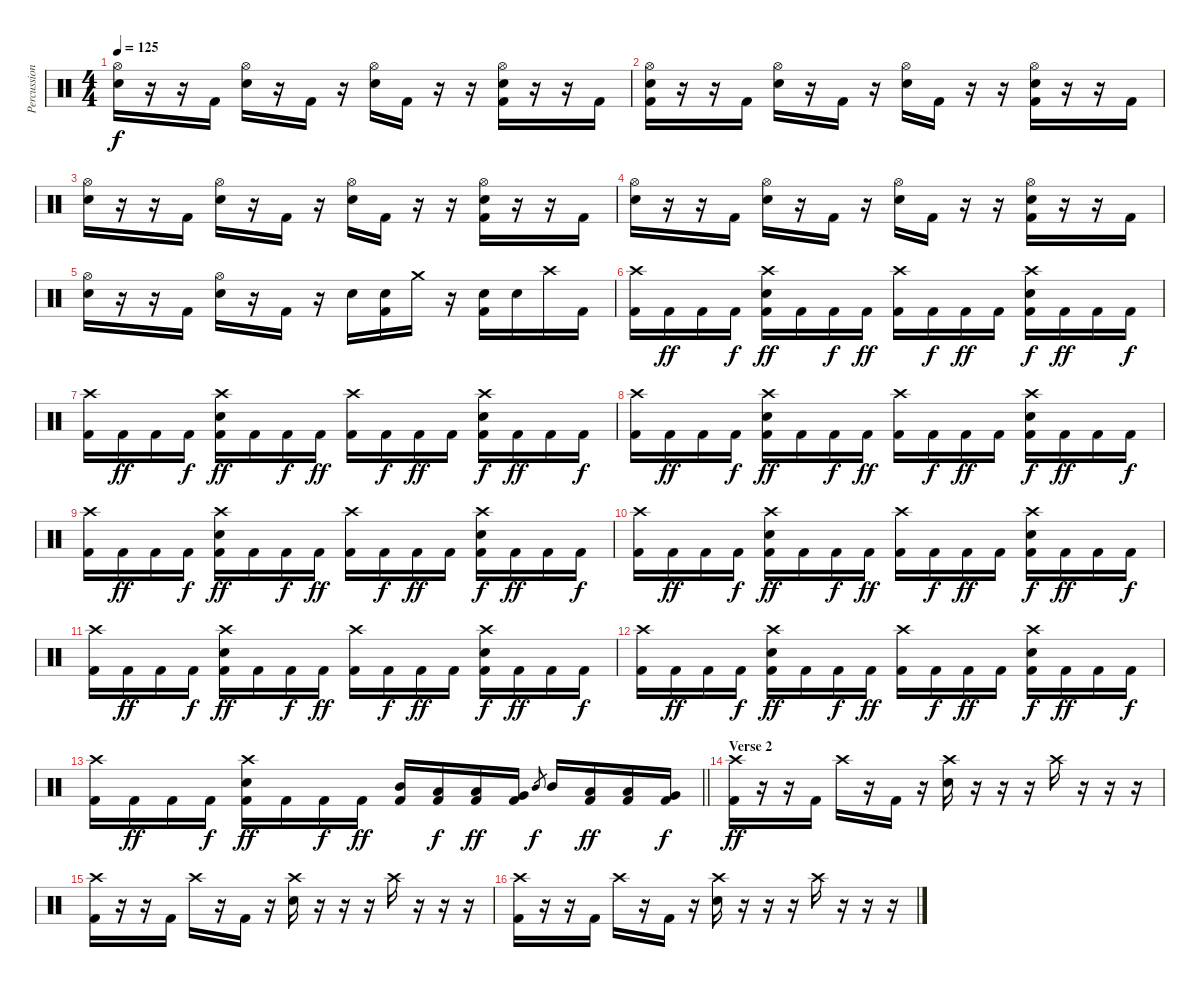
\track ("Percussion" "Percussion") {instrument percussion}
\staff {score}
\articulation defaults
\ts (4 4)
\tempo 125
\clef neutral
\ks c
("Hi-Hat (open)" "Electric Snare (hit)").16{dy f} r.16 r.16 "Kick (hit) 2".16 ("Hi-Hat (open)" "Electric Snare (hit)").16 r.16 "Kick (hit) 2".16 r.16 ("Hi-Hat (open)" "Electric Snare (hit)").16 "Kick (hit) 2".16 r.16 r.16 ("Hi-Hat (open)" "Electric Snare (hit)" "Kick (hit) 2").16 r.16 r.16 "Kick (hit) 2".16 |
("Hi-Hat (open)" "Electric Snare (hit)" "Kick (hit) 2").16 r.16 r.16 "Kick (hit) 2".16 ("Hi-Hat (open)" "Electric Snare (hit)").16 r.16 "Kick (hit) 2".16 r.16 ("Hi-Hat (open)" "Electric Snare (hit)").16 "Kick (hit) 2".16 r.16 r.16 ("Hi-Hat (open)" "Electric Snare (hit)" "Kick (hit) 2").16 r.16 r.16 "Kick (hit) 2".16 |
("Hi-Hat (open)" "Electric Snare (hit)").16 r.16 r.16 "Kick (hit) 2".16 ("Hi-Hat (open)" "Electric Snare (hit)").16 r.16 "Kick (hit) 2".16 r.16 ("Hi-Hat (open)" "Electric Snare (hit)").16 "Kick (hit) 2".16 r.16 r.16 ("Hi-Hat (open)" "Electric Snare (hit)" "Kick (hit) 2").16 r.16 r.16 "Kick (hit) 2".16 |
("Hi-Hat (open)" "Electric Snare (hit)").16 r.16 r.16 "Kick (hit) 2".16 ("Hi-Hat (open)" "Electric Snare (hit)").16 r.16 "Kick (hit) 2".16 r.16 ("Hi-Hat (open)" "Electric Snare (hit)").16 "Kick (hit) 2".16 r.16 r.16 ("Hi-Hat (open)" "Electric Snare (hit)" "Kick (hit) 2").16 r.16 r.16 "Kick (hit) 2".16 |
("Hi-Hat (open)" "Electric Snare (hit)").16 r.16 r.16 "Kick (hit) 2".16 ("Hi-Hat (open)" "Electric Snare (hit)").16 r.16 "Kick (hit) 2".16 r.16 "Electric Snare (hit)".16 ("Electric Snare (hit)" "Kick (hit) 2").16 "Crash medium (hit)".16 r.16 ("Electric Snare (hit)" "Kick (hit) 2").16 "Electric Snare (hit)".16 "Crash high (hit)".16 "Kick (hit) 2".16 |
("Crash high (hit)" "Kick (hit) 2").16 "Kick (hit) 2".16{dy ff} "Kick (hit) 2".16 "Kick (hit) 2".16{dy f} ("Crash high (hit)" "Electric Snare (hit)" "Kick (hit) 2").16{dy ff} "Kick (hit) 2".16 "Kick (hit) 2".16{dy f} "Kick (hit) 2".16{dy ff} ("Crash high (hit)" "Kick (hit) 2").16 "Kick (hit) 2".16{dy f} "Kick (hit) 2".16{dy ff} "Kick (hit) 2".16 ("Crash high (hit)" "Electric Snare (hit)" "Kick (hit) 2").16{dy f} "Kick (hit) 2".16{dy ff} "Kick (hit) 2".16 "Kick (hit) 2".16{dy f} |
("Crash high (hit)" "Kick (hit) 2").16 "Kick (hit) 2".16{dy ff} "Kick (hit) 2".16 "Kick (hit) 2".16{dy f} ("Crash high (hit)" "Electric Snare (hit)" "Kick (hit) 2").16{dy ff} "Kick (hit) 2".16 "Kick (hit) 2".16{dy f} "Kick (hit) 2".16{dy ff} ("Crash high (hit)" "Kick (hit) 2").16 "Kick (hit) 2".16{dy f} "Kick (hit) 2".16{dy ff} "Kick (hit) 2".16 ("Crash high (hit)" "Electric Snare (hit)" "Kick (hit) 2").16{dy f} "Kick (hit) 2".16{dy ff} "Kick (hit) 2".16 "Kick (hit) 2".16{dy f} |
("Crash high (hit)" "Kick (hit) 2").16 "Kick (hit) 2".16{dy ff} "Kick (hit) 2".16 "Kick (hit) 2".16{dy f} ("Crash high (hit)" "Electric Snare (hit)" "Kick (hit) 2").16{dy ff} "Kick (hit) 2".16 "Kick (hit) 2".16{dy f} "Kick (hit) 2".16{dy ff} ("Crash high (hit)" "Kick (hit) 2").16 "Kick (hit) 2".16{dy f} "Kick (hit) 2".16{dy ff} "Kick (hit) 2".16 ("Crash high (hit)" "Electric Snare (hit)" "Kick (hit) 2").16{dy f} "Kick (hit) 2".16{dy ff} "Kick (hit) 2".16 "Kick (hit) 2".16{dy f} |
("Crash high (hit)" "Kick (hit) 2").16 "Kick (hit) 2".16{dy ff} "Kick (hit) 2".16 "Kick (hit) 2".16{dy f} ("Crash high (hit)" "Electric Snare (hit)" "Kick (hit) 2").16{dy ff} "Kick (hit) 2".16 "Kick (hit) 2".16{dy f} "Kick (hit) 2".16{dy ff} ("Crash high (hit)" "Kick (hit) 2").16 "Kick (hit) 2".16{dy f} "Kick (hit) 2".16{dy ff} "Kick (hit) 2".16 ("Crash high (hit)" "Electric Snare (hit)" "Kick (hit) 2").16{dy f} "Kick (hit) 2".16{dy ff} "Kick (hit) 2".16 "Kick (hit) 2".16{dy f} |
("Crash high (hit)" "Kick (hit) 2").16 "Kick (hit) 2".16{dy ff} "Kick (hit) 2".16 "Kick (hit) 2".16{dy f} ("Crash high (hit)" "Electric Snare (hit)" "Kick (hit) 2").16{dy ff} "Kick (hit) 2".16 "Kick (hit) 2".16{dy f} "Kick (hit) 2".16{dy ff} ("Crash high (hit)" "Kick (hit) 2").16 "Kick (hit) 2".16{dy f} "Kick (hit) 2".16{dy ff} "Kick (hit) 2".16 ("Crash high (hit)" "Electric Snare (hit)" "Kick (hit) 2").16{dy f} "Kick (hit) 2".16{dy ff} "Kick (hit) 2".16 "Kick (hit) 2".16{dy f} |
("Crash high (hit)" "Kick (hit) 2").16 "Kick (hit) 2".16{dy ff} "Kick (hit) 2".16 "Kick (hit) 2".16{dy f} ("Crash high (hit)" "Electric Snare (hit)" "Kick (hit) 2").16{dy ff} "Kick (hit) 2".16 "Kick (hit) 2".16{dy f} "Kick (hit) 2".16{dy ff} ("Crash high (hit)" "Kick (hit) 2").16 "Kick (hit) 2".16{dy f} "Kick (hit) 2".16{dy ff} "Kick (hit) 2".16 ("Crash high (hit)" "Electric Snare (hit)" "Kick (hit) 2").16{dy f} "Kick (hit) 2".16{dy ff} "Kick (hit) 2".16 "Kick (hit) 2".16{dy f} |
("Crash high (hit)" "Kick (hit) 2").16 "Kick (hit) 2".16{dy ff} "Kick (hit) 2".16 "Kick (hit) 2".16{dy f} ("Crash high (hit)" "Electric Snare (hit)" "Kick (hit) 2").16{dy ff} "Kick (hit) 2".16 "Kick (hit) 2".16{dy f} "Kick (hit) 2".16{dy ff} ("Crash high (hit)" "Kick (hit) 2").16 "Kick (hit) 2".16{dy f} "Kick (hit) 2".16{dy ff} "Kick (hit) 2".16 ("Crash high (hit)" "Electric Snare (hit)" "Kick (hit) 2").16{dy f} "Kick (hit) 2".16{dy ff} "Kick (hit) 2".16 "Kick (hit) 2".16{dy f} |
\barLineRight lightlight
("Crash high (hit)" "Kick (hit) 2").16 "Kick (hit) 2".16{dy ff} "Kick (hit) 2".16 "Kick (hit) 2".16{dy f} ("Crash high (hit)" "Electric Snare (hit)" "Kick (hit) 2").16{dy ff} "Kick (hit) 2".16 "Kick (hit) 2".16{dy f} "Kick (hit) 2".16{dy ff} ("Mid Tom (hit)" "Kick (hit) 2").16 ("Low Tom (hit)" "Kick (hit) 2").16{dy f} ("Low Tom (hit)" "Kick (hit) 2").16{dy ff} ("Very Low Tom (hit)" "Kick (hit) 2").16 "Mid Tom (hit)".8{gr dy f} "Mid Tom (hit)".16 ("Low Tom (hit)" "Kick (hit) 2").16{dy ff} ("Low Tom (hit)" "Kick (hit) 2").16 ("Very Low Tom (hit)" "Kick (hit) 2").16{dy f} |
\section ("" "Verse 2")
("Crash high (hit)" "Kick (hit) 2").16{dy ff} r.16 r.16 "Kick (hit) 2".16 "Crash high (hit)".16 r.16 "Kick (hit) 2".16 r.16 ("Crash high (hit)" "Electric Snare (hit)").16 r.16 r.16 r.16 "Crash high (hit)".16 r.16 r.16 r.16 |
("Crash high (hit)" "Kick (hit) 2").16 r.16 r.16 "Kick (hit) 2".16 "Crash high (hit)".16 r.16 "Kick (hit) 2".16 r.16 ("Crash high (hit)" "Electric Snare (hit)").16 r.16 r.16 r.16 "Crash high (hit)".16 r.16 r.16 r.16 |
("Crash high (hit)" "Kick (hit) 2").16 r.16 r.16 "Kick (hit) 2".16 "Crash high (hit)".16 r.16 "Kick (hit) 2".16 r.16 ("Crash high (hit)" "Electric Snare (hit)").16 r.16 r.16 r.16 "Crash high (hit)".16 r.16 r.16 r.16
